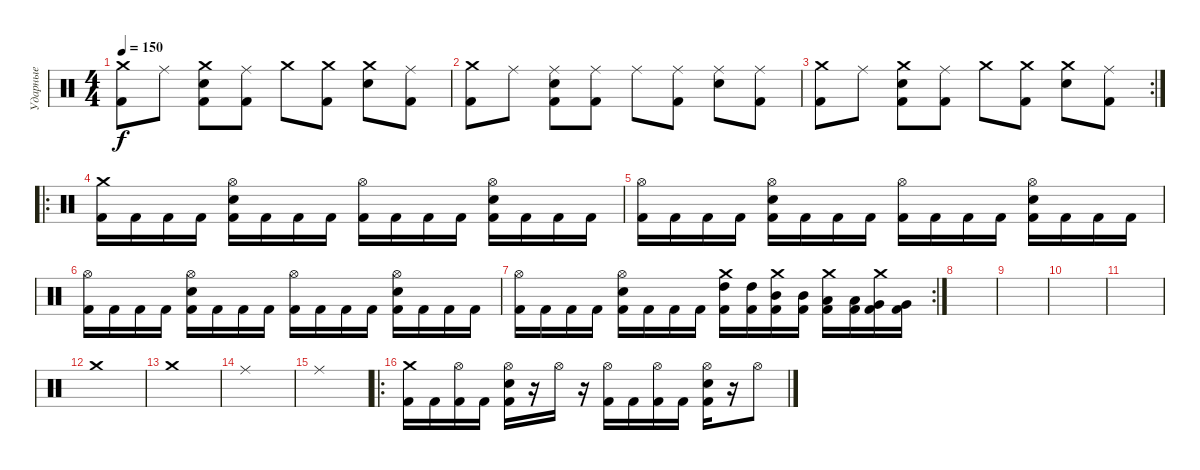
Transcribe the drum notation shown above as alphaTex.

\track ("Ударные" "Ударные") {instrument percussion}
\staff {score}
\articulation defaults
\ts (4 4)
\tempo 150
\clef neutral
\ks c
("Crash medium (hit)" "Kick (hit) 2").8{dy f} "Ride (middle)".8 ("Crash medium (hit)" "Snare (hit) 2" "Kick (hit) 2").8 ("Ride (middle)" "Kick (hit) 2").8 "Crash medium (hit)".8 ("Crash medium (hit)" "Kick (hit) 2").8 ("Crash medium (hit)" "Snare (hit) 2").8 ("Ride (middle)" "Kick (hit) 2").8 |
("Crash medium (hit)" "Kick (hit) 2").8 "Ride (middle)".8 ("Ride (middle)" "Snare (hit) 2" "Kick (hit) 2").8 ("Ride (middle)" "Kick (hit) 2").8 "Ride (middle)".8 ("Ride (middle)" "Kick (hit) 2").8 ("Ride (middle)" "Snare (hit) 2").8 ("Ride (middle)" "Kick (hit) 2").8 |
\rc 2
("Crash medium (hit)" "Kick (hit) 2").8 "Ride (middle)".8 ("Crash medium (hit)" "Snare (hit) 2" "Kick (hit) 2").8 ("Ride (middle)" "Kick (hit) 2").8 "Crash medium (hit)".8 ("Crash medium (hit)" "Kick (hit) 2").8 ("Crash medium (hit)" "Snare (hit) 2").8 ("Ride (middle)" "Kick (hit) 2").8 |
\ro
("Crash medium (hit)" "Kick (hit) 2").16 "Kick (hit) 2".16 "Kick (hit) 2".16 "Kick (hit) 2".16 ("Snare (hit) 2" "Hi-Hat (open)" "Kick (hit) 2").16 "Kick (hit) 2".16 "Kick (hit) 2".16 "Kick (hit) 2".16 ("Hi-Hat (open)" "Kick (hit) 2").16 "Kick (hit) 2".16 "Kick (hit) 2".16 "Kick (hit) 2".16 ("Snare (hit) 2" "Hi-Hat (open)" "Kick (hit) 2").16 "Kick (hit) 2".16 "Kick (hit) 2".16 "Kick (hit) 2".16 |
("Hi-Hat (open)" "Kick (hit) 2").16 "Kick (hit) 2".16 "Kick (hit) 2".16 "Kick (hit) 2".16 ("Snare (hit) 2" "Hi-Hat (open)" "Kick (hit) 2").16 "Kick (hit) 2".16 "Kick (hit) 2".16 "Kick (hit) 2".16 ("Hi-Hat (open)" "Kick (hit) 2").16 "Kick (hit) 2".16 "Kick (hit) 2".16 "Kick (hit) 2".16 ("Snare (hit) 2" "Hi-Hat (open)" "Kick (hit) 2").16 "Kick (hit) 2".16 "Kick (hit) 2".16 "Kick (hit) 2".16 |
("Hi-Hat (open)" "Kick (hit) 2").16 "Kick (hit) 2".16 "Kick (hit) 2".16 "Kick (hit) 2".16 ("Snare (hit) 2" "Hi-Hat (open)" "Kick (hit) 2").16 "Kick (hit) 2".16 "Kick (hit) 2".16 "Kick (hit) 2".16 ("Hi-Hat (open)" "Kick (hit) 2").16 "Kick (hit) 2".16 "Kick (hit) 2".16 "Kick (hit) 2".16 ("Snare (hit) 2" "Hi-Hat (open)" "Kick (hit) 2").16 "Kick (hit) 2".16 "Kick (hit) 2".16 "Kick (hit) 2".16 |
\rc 2
("Hi-Hat (open)" "Kick (hit) 2").16 "Kick (hit) 2".16 "Kick (hit) 2".16 "Kick (hit) 2".16 ("Snare (hit) 2" "Hi-Hat (open)" "Kick (hit) 2").16 "Kick (hit) 2".16 "Kick (hit) 2".16 "Kick (hit) 2".16 ("High Tom (hit)" "Crash medium (hit)" "Kick (hit) 2").16 ("High Tom (hit)" "Kick (hit) 2").16 ("Mid Tom (hit)" "Crash medium (hit)" "Kick (hit) 2").16 ("Mid Tom (hit)" "Kick (hit) 2").16 ("Low Tom (hit)" "Crash medium (hit)" "Kick (hit) 2").16 ("Low Tom (hit)" "Kick (hit) 2").16 ("Very Low Tom (hit)" "Crash medium (hit)" "Kick (hit) 2").16 ("Very Low Tom (hit)" "Kick (hit) 2").16 |
|
|
|
|
"Crash medium (hit)".1 |
"Crash medium (hit)".1 |
"Ride (middle)".1 |
"Ride (middle)".1 |
\ro
("Crash medium (hit)" "Kick (hit) 2").16 "Kick (hit) 2".16 ("Hi-Hat (open)" "Kick (hit) 2").16 "Kick (hit) 2".16 ("Hi-Hat (open)" "Snare (hit) 2" "Kick (hit) 2").16 r.16 "Hi-Hat (open)".16 r.16 ("Hi-Hat (open)" "Kick (hit) 2").16 "Kick (hit) 2".16 ("Hi-Hat (open)" "Kick (hit) 2").16 "Kick (hit) 2".16 ("Hi-Hat (open)" "Snare (hit) 2" "Kick (hit) 2").16 r.16 "Hi-Hat (open)".8
